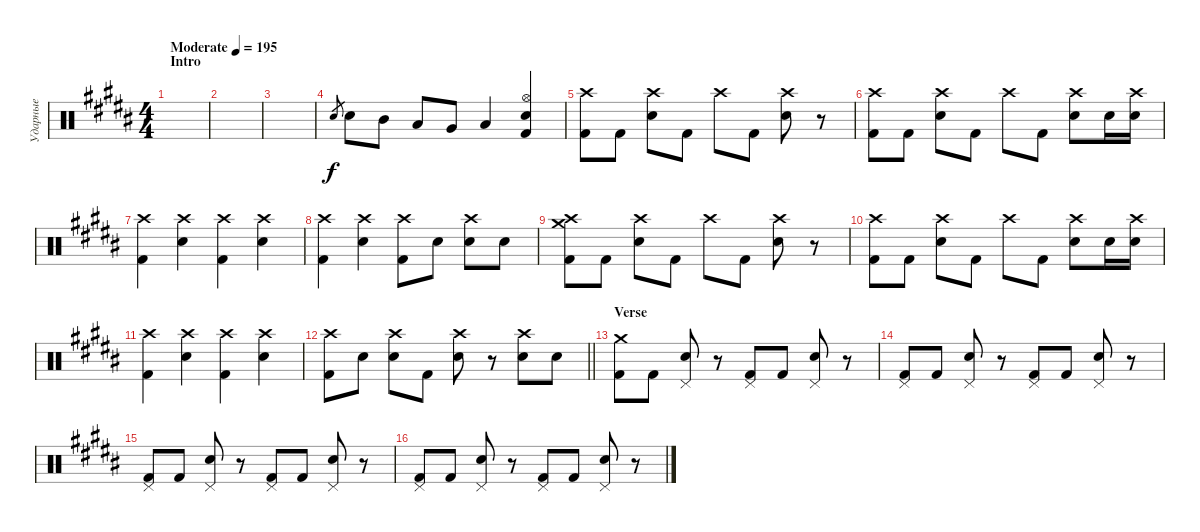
\track ("Ударные" "Ударные") {instrument percussion}
\staff {score}
\articulation defaults
\ts (4 4)
\section ("" "Intro")
\tempo (195 "Moderate")
\clef neutral
\ks b
|
|
|
"Electric Snare (hit)".8{gr} "Electric Snare (hit)".8 "Mid Tom (hit)".8 "Low Tom (hit)".8 "Very Low Tom (hit)".8 "Low Floor Tom (hit)".4 ("Hi-Hat (open)" "Electric Snare (hit)" "Kick (hit) 2").4 |
("Crash high (hit)" "Kick (hit) 2").8 "Kick (hit) 2".8 ("Crash high (hit)" "Electric Snare (hit)").8 "Kick (hit) 2".8 "Crash high (hit)".8 "Kick (hit) 2".8 ("Crash high (hit)" "Electric Snare (hit)").8 r.8 |
("Crash high (hit)" "Kick (hit) 2").8 "Kick (hit) 2".8 ("Crash high (hit)" "Electric Snare (hit)").8 "Kick (hit) 2".8 "Crash high (hit)".8 "Kick (hit) 2".8 ("Crash high (hit)" "Electric Snare (hit)").8 "Electric Snare (hit)".16 ("Crash high (hit)" "Electric Snare (hit)").16 |
("Crash high (hit)" "Kick (hit) 2").4 ("Crash high (hit)" "Electric Snare (hit)").4 ("Crash high (hit)" "Kick (hit) 2").4 ("Crash high (hit)" "Electric Snare (hit)").4 |
("Crash high (hit)" "Kick (hit) 2").4 ("Crash high (hit)" "Electric Snare (hit)").4 ("Crash high (hit)" "Kick (hit) 2").8 "Electric Snare (hit)".8 ("Crash high (hit)" "Electric Snare (hit)").8 "Electric Snare (hit)".8 |
("Crash medium (hit)" "Crash high (hit)" "Kick (hit) 2").8 "Kick (hit) 2".8 ("Crash high (hit)" "Electric Snare (hit)").8 "Kick (hit) 2".8 "Crash high (hit)".8 "Kick (hit) 2".8 ("Crash high (hit)" "Electric Snare (hit)").8 r.8 |
("Crash high (hit)" "Kick (hit) 2").8 "Kick (hit) 2".8 ("Crash high (hit)" "Electric Snare (hit)").8 "Kick (hit) 2".8 "Crash high (hit)".8 "Kick (hit) 2".8 ("Crash high (hit)" "Electric Snare (hit)").8 "Electric Snare (hit)".16 ("Crash high (hit)" "Electric Snare (hit)").16 |
("Crash high (hit)" "Kick (hit) 2").4 ("Crash high (hit)" "Electric Snare (hit)").4 ("Crash high (hit)" "Kick (hit) 2").4 ("Crash high (hit)" "Electric Snare (hit)").4 |
\barLineRight lightlight
("Crash high (hit)" "Kick (hit) 2").8 "Electric Snare (hit)".8 ("Crash high (hit)" "Electric Snare (hit)").8 "Kick (hit) 2".8 ("Crash high (hit)" "Electric Snare (hit)").8 r.8 ("Crash high (hit)" "Electric Snare (hit)").8 "Electric Snare (hit)".8 |
\section ("" "Verse")
("Crash medium (hit)" "Kick (hit) 2").8 "Kick (hit) 2".8 ("Pedal Hi-Hat (hit)" "Electric Snare (hit)").8 r.8 ("Pedal Hi-Hat (hit)" "Kick (hit) 2").8 "Kick (hit) 2".8 ("Pedal Hi-Hat (hit)" "Electric Snare (hit)").8 r.8 |
("Pedal Hi-Hat (hit)" "Kick (hit) 2").8 "Kick (hit) 2".8 ("Pedal Hi-Hat (hit)" "Electric Snare (hit)").8 r.8 ("Pedal Hi-Hat (hit)" "Kick (hit) 2").8 "Kick (hit) 2".8 ("Pedal Hi-Hat (hit)" "Electric Snare (hit)").8 r.8 |
("Pedal Hi-Hat (hit)" "Kick (hit) 2").8 "Kick (hit) 2".8 ("Pedal Hi-Hat (hit)" "Electric Snare (hit)").8 r.8 ("Pedal Hi-Hat (hit)" "Kick (hit) 2").8 "Kick (hit) 2".8 ("Pedal Hi-Hat (hit)" "Electric Snare (hit)").8 r.8 |
("Pedal Hi-Hat (hit)" "Kick (hit) 2").8 "Kick (hit) 2".8 ("Pedal Hi-Hat (hit)" "Electric Snare (hit)").8 r.8 ("Pedal Hi-Hat (hit)" "Kick (hit) 2").8 "Kick (hit) 2".8 ("Pedal Hi-Hat (hit)" "Electric Snare (hit)").8 r.8
